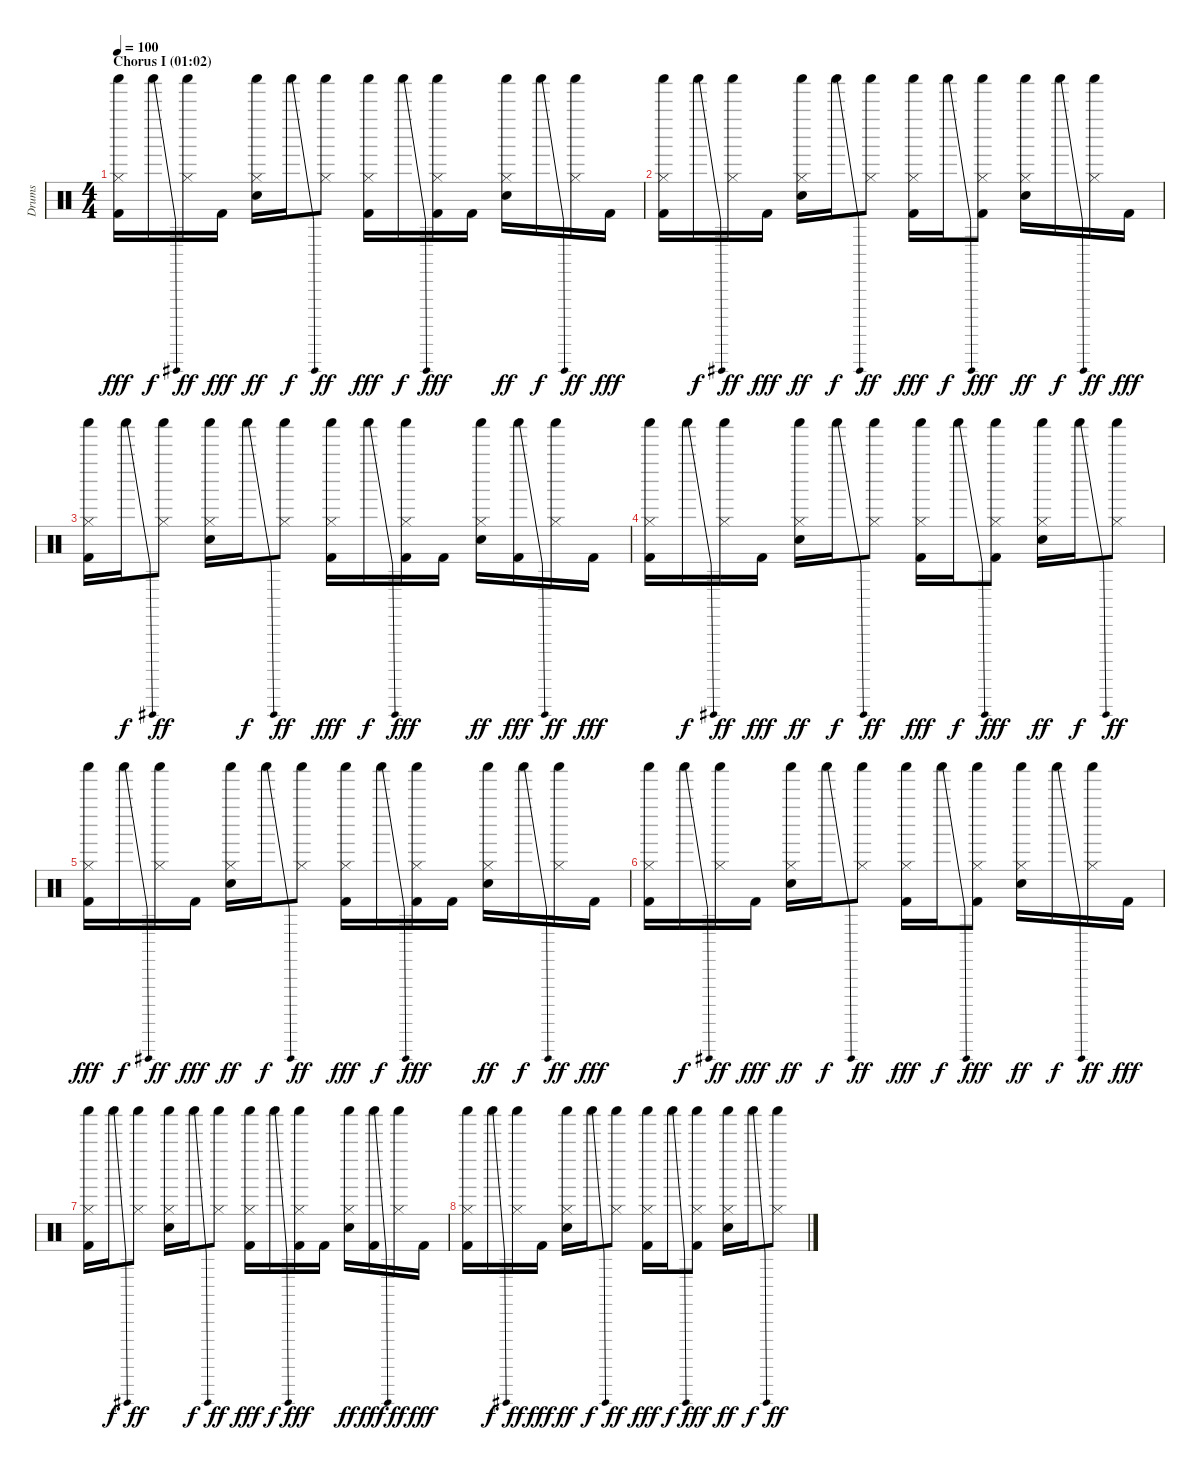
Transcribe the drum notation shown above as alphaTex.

\track ("Drums" "Drums") {instrument percussion}
\staff {score}
\articulation defaults
\ts (4 4)
\section ("" "Chorus I (01:02)")
\tempo 100
\clef neutral
\ks c
("Shaker (hit)" "Hi-Hat (closed)" "Kick (hit) 2").16{dy fff} "Shaker (hit)"{be (bend 0 0 60 12)}.16{dy f} ("Shaker (hit)" "Hi-Hat (closed)").16{dy ff} "Kick (hit) 2".16{dy fff} ("Shaker (hit)" "Hi-Hat (closed)" "Electric Snare (hit)").16{dy ff} "Shaker (hit)"{be (bend 0 0 60 12)}.16{dy f} ("Shaker (hit)" "Hi-Hat (closed)").8{dy ff} ("Shaker (hit)" "Hi-Hat (closed)" "Kick (hit) 2").16{dy fff} "Shaker (hit)"{be (bend 0 0 60 12)}.16{dy f} ("Shaker (hit)" "Hi-Hat (closed)" "Kick (hit) 2").16{dy fff} "Kick (hit) 2".16 ("Shaker (hit)" "Hi-Hat (closed)" "Electric Snare (hit)").16{dy ff} "Shaker (hit)"{be (bend 0 0 60 12)}.16{dy f} ("Shaker (hit)" "Hi-Hat (closed)").16{dy ff} "Kick (hit) 2".16{dy fff} |
("Shaker (hit)" "Hi-Hat (closed)" "Kick (hit) 2").16 "Shaker (hit)"{be (bend 0 0 60 12)}.16{dy f} ("Shaker (hit)" "Hi-Hat (closed)").16{dy ff} "Kick (hit) 2".16{dy fff} ("Shaker (hit)" "Hi-Hat (closed)" "Electric Snare (hit)").16{dy ff} "Shaker (hit)"{be (bend 0 0 60 12)}.16{dy f} ("Shaker (hit)" "Hi-Hat (closed)").8{dy ff} ("Shaker (hit)" "Hi-Hat (closed)" "Kick (hit) 2").16{dy fff} "Shaker (hit)"{be (bend 0 0 60 12)}.16{dy f} ("Shaker (hit)" "Hi-Hat (closed)" "Kick (hit) 2").8{dy fff} ("Shaker (hit)" "Hi-Hat (closed)" "Electric Snare (hit)").16{dy ff} "Shaker (hit)"{be (bend 0 0 60 12)}.16{dy f} ("Shaker (hit)" "Hi-Hat (closed)").16{dy ff} "Kick (hit) 2".16{dy fff} |
("Shaker (hit)" "Hi-Hat (closed)" "Kick (hit) 2").16 "Shaker (hit)"{be (bend 0 0 60 12)}.16{dy f} ("Shaker (hit)" "Hi-Hat (closed)").8{dy ff} ("Shaker (hit)" "Hi-Hat (closed)" "Electric Snare (hit)").16 "Shaker (hit)"{be (bend 0 0 60 12)}.16{dy f} ("Shaker (hit)" "Hi-Hat (closed)").8{dy ff} ("Shaker (hit)" "Hi-Hat (closed)" "Kick (hit) 2").16{dy fff} "Shaker (hit)"{be (bend 0 0 60 12)}.16{dy f} ("Shaker (hit)" "Hi-Hat (closed)" "Kick (hit) 2").16{dy fff} "Kick (hit) 2".16 ("Shaker (hit)" "Hi-Hat (closed)" "Electric Snare (hit)").16{dy ff} ("Shaker (hit)"{be (bend 0 0 60 12)} "Kick (hit) 2").16{dy fff} ("Shaker (hit)" "Hi-Hat (closed)").16{dy ff} "Kick (hit) 2".16{dy fff} |
("Shaker (hit)" "Hi-Hat (closed)" "Kick (hit) 2").16 "Shaker (hit)"{be (bend 0 0 60 12)}.16{dy f} ("Shaker (hit)" "Hi-Hat (closed)").16{dy ff} "Kick (hit) 2".16{dy fff} ("Shaker (hit)" "Hi-Hat (closed)" "Electric Snare (hit)").16{dy ff} "Shaker (hit)"{be (bend 0 0 60 12)}.16{dy f} ("Shaker (hit)" "Hi-Hat (closed)").8{dy ff} ("Shaker (hit)" "Hi-Hat (closed)" "Kick (hit) 2").16{dy fff} "Shaker (hit)"{be (bend 0 0 60 12)}.16{dy f} ("Shaker (hit)" "Hi-Hat (closed)" "Kick (hit) 2").8{dy fff} ("Shaker (hit)" "Hi-Hat (closed)" "Electric Snare (hit)").16{dy ff} "Shaker (hit)"{be (bend 0 0 60 12)}.16{dy f} ("Shaker (hit)" "Hi-Hat (closed)").8{dy ff} |
("Shaker (hit)" "Hi-Hat (closed)" "Kick (hit) 2").16{dy fff} "Shaker (hit)"{be (bend 0 0 60 12)}.16{dy f} ("Shaker (hit)" "Hi-Hat (closed)").16{dy ff} "Kick (hit) 2".16{dy fff} ("Shaker (hit)" "Hi-Hat (closed)" "Electric Snare (hit)").16{dy ff} "Shaker (hit)"{be (bend 0 0 60 12)}.16{dy f} ("Shaker (hit)" "Hi-Hat (closed)").8{dy ff} ("Shaker (hit)" "Hi-Hat (closed)" "Kick (hit) 2").16{dy fff} "Shaker (hit)"{be (bend 0 0 60 12)}.16{dy f} ("Shaker (hit)" "Hi-Hat (closed)" "Kick (hit) 2").16{dy fff} "Kick (hit) 2".16 ("Shaker (hit)" "Hi-Hat (closed)" "Electric Snare (hit)").16{dy ff} "Shaker (hit)"{be (bend 0 0 60 12)}.16{dy f} ("Shaker (hit)" "Hi-Hat (closed)").16{dy ff} "Kick (hit) 2".16{dy fff} |
("Shaker (hit)" "Hi-Hat (closed)" "Kick (hit) 2").16 "Shaker (hit)"{be (bend 0 0 60 12)}.16{dy f} ("Shaker (hit)" "Hi-Hat (closed)").16{dy ff} "Kick (hit) 2".16{dy fff} ("Shaker (hit)" "Hi-Hat (closed)" "Electric Snare (hit)").16{dy ff} "Shaker (hit)"{be (bend 0 0 60 12)}.16{dy f} ("Shaker (hit)" "Hi-Hat (closed)").8{dy ff} ("Shaker (hit)" "Hi-Hat (closed)" "Kick (hit) 2").16{dy fff} "Shaker (hit)"{be (bend 0 0 60 12)}.16{dy f} ("Shaker (hit)" "Hi-Hat (closed)" "Kick (hit) 2").8{dy fff} ("Shaker (hit)" "Hi-Hat (closed)" "Electric Snare (hit)").16{dy ff} "Shaker (hit)"{be (bend 0 0 60 12)}.16{dy f} ("Shaker (hit)" "Hi-Hat (closed)").16{dy ff} "Kick (hit) 2".16{dy fff} |
("Shaker (hit)" "Hi-Hat (closed)" "Kick (hit) 2").16 "Shaker (hit)"{be (bend 0 0 60 12)}.16{dy f} ("Shaker (hit)" "Hi-Hat (closed)").8{dy ff} ("Shaker (hit)" "Hi-Hat (closed)" "Electric Snare (hit)").16 "Shaker (hit)"{be (bend 0 0 60 12)}.16{dy f} ("Shaker (hit)" "Hi-Hat (closed)").8{dy ff} ("Shaker (hit)" "Hi-Hat (closed)" "Kick (hit) 2").16{dy fff} "Shaker (hit)"{be (bend 0 0 60 12)}.16{dy f} ("Shaker (hit)" "Hi-Hat (closed)" "Kick (hit) 2").16{dy fff} "Kick (hit) 2".16 ("Shaker (hit)" "Hi-Hat (closed)" "Electric Snare (hit)").16{dy ff} ("Shaker (hit)"{be (bend 0 0 60 12)} "Kick (hit) 2").16{dy fff} ("Shaker (hit)" "Hi-Hat (closed)").16{dy ff} "Kick (hit) 2".16{dy fff} |
("Shaker (hit)" "Hi-Hat (closed)" "Kick (hit) 2").16 "Shaker (hit)"{be (bend 0 0 60 12)}.16{dy f} ("Shaker (hit)" "Hi-Hat (closed)").16{dy ff} "Kick (hit) 2".16{dy fff} ("Shaker (hit)" "Hi-Hat (closed)" "Electric Snare (hit)").16{dy ff} "Shaker (hit)"{be (bend 0 0 60 12)}.16{dy f} ("Shaker (hit)" "Hi-Hat (closed)").8{dy ff} ("Shaker (hit)" "Hi-Hat (closed)" "Kick (hit) 2").16{dy fff} "Shaker (hit)"{be (bend 0 0 60 12)}.16{dy f} ("Shaker (hit)" "Hi-Hat (closed)" "Kick (hit) 2").8{dy fff} ("Shaker (hit)" "Hi-Hat (closed)" "Electric Snare (hit)").16{dy ff} "Shaker (hit)"{be (bend 0 0 60 12)}.16{dy f} ("Shaker (hit)" "Hi-Hat (closed)").8{dy ff}
